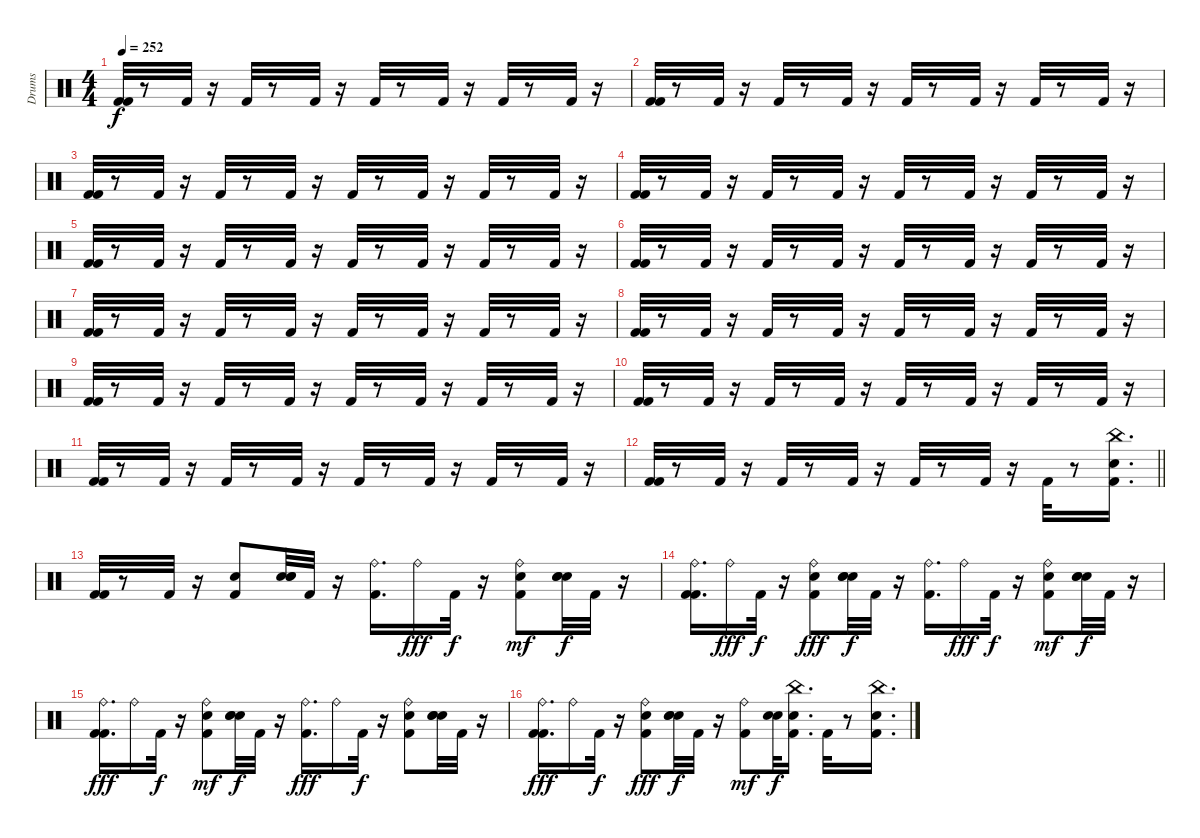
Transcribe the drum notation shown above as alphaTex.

\track ("Drums" "Drums") {instrument percussion}
\staff {score}
\articulation defaults
\ts (4 4)
\tempo 252
\clef neutral
\ks c
("Kick (hit) 2" "Kick (hit) 2").32{dy f} r.8 "Kick (hit) 2".32 r.16 "Kick (hit) 2".32 r.8 "Kick (hit) 2".32 r.16 "Kick (hit) 2".32 r.8 "Kick (hit) 2".32 r.16 "Kick (hit) 2".32 r.8 "Kick (hit) 2".32 r.16 |
("Kick (hit) 2" "Kick (hit) 2").32 r.8 "Kick (hit) 2".32 r.16 "Kick (hit) 2".32 r.8 "Kick (hit) 2".32 r.16 "Kick (hit) 2".32 r.8 "Kick (hit) 2".32 r.16 "Kick (hit) 2".32 r.8 "Kick (hit) 2".32 r.16 |
("Kick (hit) 2" "Kick (hit) 2").32 r.8 "Kick (hit) 2".32 r.16 "Kick (hit) 2".32 r.8 "Kick (hit) 2".32 r.16 "Kick (hit) 2".32 r.8 "Kick (hit) 2".32 r.16 "Kick (hit) 2".32 r.8 "Kick (hit) 2".32 r.16 |
("Kick (hit) 2" "Kick (hit) 2").32 r.8 "Kick (hit) 2".32 r.16 "Kick (hit) 2".32 r.8 "Kick (hit) 2".32 r.16 "Kick (hit) 2".32 r.8 "Kick (hit) 2".32 r.16 "Kick (hit) 2".32 r.8 "Kick (hit) 2".32 r.16 |
("Kick (hit) 2" "Kick (hit) 2").32 r.8 "Kick (hit) 2".32 r.16 "Kick (hit) 2".32 r.8 "Kick (hit) 2".32 r.16 "Kick (hit) 2".32 r.8 "Kick (hit) 2".32 r.16 "Kick (hit) 2".32 r.8 "Kick (hit) 2".32 r.16 |
("Kick (hit) 2" "Kick (hit) 2").32 r.8 "Kick (hit) 2".32 r.16 "Kick (hit) 2".32 r.8 "Kick (hit) 2".32 r.16 "Kick (hit) 2".32 r.8 "Kick (hit) 2".32 r.16 "Kick (hit) 2".32 r.8 "Kick (hit) 2".32 r.16 |
("Kick (hit) 2" "Kick (hit) 2").32 r.8 "Kick (hit) 2".32 r.16 "Kick (hit) 2".32 r.8 "Kick (hit) 2".32 r.16 "Kick (hit) 2".32 r.8 "Kick (hit) 2".32 r.16 "Kick (hit) 2".32 r.8 "Kick (hit) 2".32 r.16 |
("Kick (hit) 2" "Kick (hit) 2").32 r.8 "Kick (hit) 2".32 r.16 "Kick (hit) 2".32 r.8 "Kick (hit) 2".32 r.16 "Kick (hit) 2".32 r.8 "Kick (hit) 2".32 r.16 "Kick (hit) 2".32 r.8 "Kick (hit) 2".32 r.16 |
("Kick (hit) 2" "Kick (hit) 2").32 r.8 "Kick (hit) 2".32 r.16 "Kick (hit) 2".32 r.8 "Kick (hit) 2".32 r.16 "Kick (hit) 2".32 r.8 "Kick (hit) 2".32 r.16 "Kick (hit) 2".32 r.8 "Kick (hit) 2".32 r.16 |
("Kick (hit) 2" "Kick (hit) 2").32 r.8 "Kick (hit) 2".32 r.16 "Kick (hit) 2".32 r.8 "Kick (hit) 2".32 r.16 "Kick (hit) 2".32 r.8 "Kick (hit) 2".32 r.16 "Kick (hit) 2".32 r.8 "Kick (hit) 2".32 r.16 |
("Kick (hit) 2" "Kick (hit) 2").32 r.8 "Kick (hit) 2".32 r.16 "Kick (hit) 2".32 r.8 "Kick (hit) 2".32 r.16 "Kick (hit) 2".32 r.8 "Kick (hit) 2".32 r.16 "Kick (hit) 2".32 r.8 "Kick (hit) 2".32 r.16 |
\barLineRight lightlight
("Kick (hit) 2" "Kick (hit) 2").32 r.8 "Kick (hit) 2".32 r.16 "Kick (hit) 2".32 r.8 "Kick (hit) 2".32 r.16 "Kick (hit) 2".32 r.8 "Kick (hit) 2".32 r.16 "Kick (hit) 2".32 r.8 ("Kick (hit) 2" "Snare (hit) 2" "China (hit)").16{d} |
("Kick (hit) 2" "Kick (hit) 2").32 r.8 "Kick (hit) 2".32 r.16 ("Kick (hit) 2" "Snare (hit) 2").8 ("Snare (hit)" "Snare (hit)" "Snare (hit)").32 "Kick (hit) 2".32 r.16 ("Kick (hit) 2" "Ride (bell)").16{d} "Ride (bell)".16{dy fff} "Kick (hit) 2".32{dy f} r.16 ("Snare (hit) 2" "Kick (hit) 2" "Ride (bell)").8{dy mf} ("Snare (hit)" "Snare (hit)" "Snare (hit)").32{dy f} "Kick (hit) 2".32 r.16 |
("Kick (hit) 2" "Ride (bell)" "Kick (hit) 2").16{d} "Ride (bell)".16{dy fff} "Kick (hit) 2".32{dy f} r.16 ("Ride (bell)" "Snare (hit) 2" "Kick (hit) 2").8{dy fff} ("Snare (hit)" "Snare (hit)" "Snare (hit)").32{dy f} "Kick (hit) 2".32 r.16 ("Kick (hit) 2" "Ride (bell)").16{d} "Ride (bell)".16{dy fff} "Kick (hit) 2".32{dy f} r.16 ("Snare (hit) 2" "Ride (bell)" "Kick (hit) 2").8{dy mf} ("Snare (hit)" "Snare (hit)" "Snare (hit)").32{dy f} "Kick (hit) 2".32 r.16 |
("Ride (bell)" "Kick (hit) 2" "Kick (hit) 2").16{d dy fff} "Ride (bell)".16 "Kick (hit) 2".32{dy f} r.16 ("Snare (hit) 2" "Ride (bell)" "Kick (hit) 2").8{dy mf} ("Snare (hit)" "Snare (hit)" "Snare (hit)").32{dy f} "Kick (hit) 2".32 r.16 ("Ride (bell)" "Kick (hit) 2").16{d dy fff} "Ride (bell)".16 "Kick (hit) 2".32{dy f} r.16 ("Kick (hit) 2" "Ride (bell)" "Snare (hit) 2").8 ("Snare (hit)" "Snare (hit)" "Snare (hit)").32 "Kick (hit) 2".32 r.16 |
("Ride (bell)" "Kick (hit) 2" "Kick (hit) 2").16{d dy fff} "Ride (bell)".16 "Kick (hit) 2".32{dy f} r.16 ("Ride (bell)" "Snare (hit) 2" "Kick (hit) 2").8{dy fff} ("Snare (hit)" "Snare (hit)" "Snare (hit)").32{dy f} "Kick (hit) 2".32 r.16 ("Ride (bell)" "Kick (hit) 2").8{dy mf} ("Snare (hit)" "Snare (hit)").32{dy f} ("Kick (hit) 2" "China (hit)" "Snare (hit) 2").16{d} "Kick (hit) 2".32 r.8 ("Kick (hit) 2" "Snare (hit) 2" "China (hit)").16{d}
